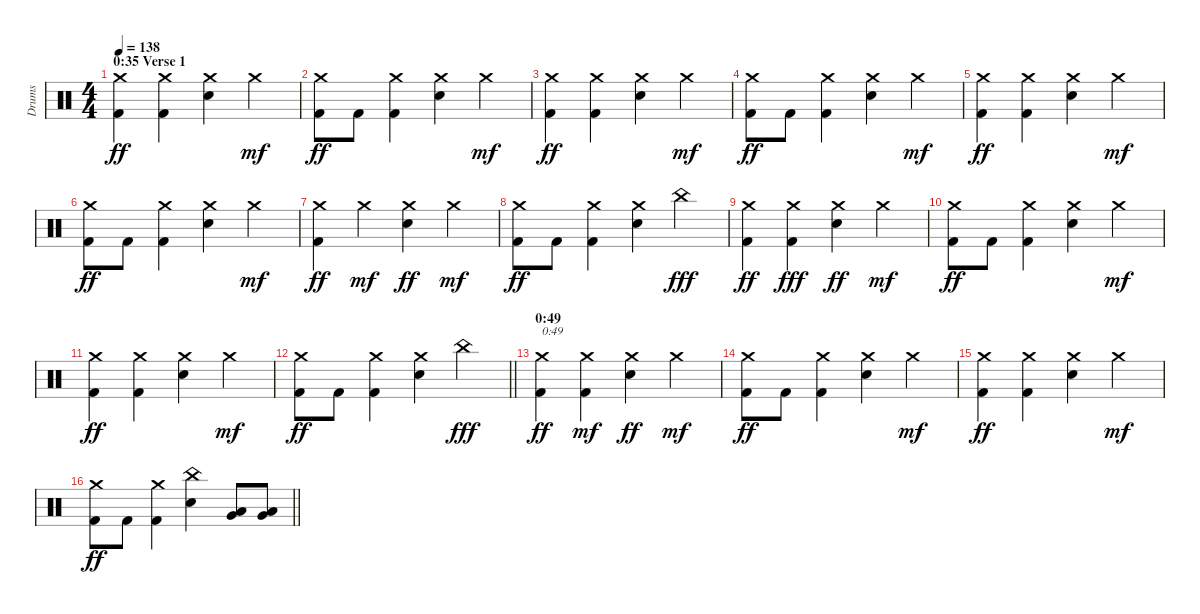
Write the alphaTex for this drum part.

\track ("Drums" "Drums") {instrument percussion}
\staff {score}
\articulation defaults
\ts (4 4)
\section ("" "0:35 Verse 1")
\tempo 138
\clef neutral
\ks c
("Crash medium (hit)" "Kick (hit) 2").4{dy ff} ("Crash medium (hit)" "Kick (hit) 2").4 ("Crash medium (hit)" "Electric Snare (hit)").4 "Crash medium (hit)".4{dy mf} |
("Crash medium (hit)" "Kick (hit) 2").8{dy ff} "Kick (hit) 2".8 ("Crash medium (hit)" "Kick (hit) 2").4 ("Crash medium (hit)" "Electric Snare (hit)").4 "Crash medium (hit)".4{dy mf} |
("Crash medium (hit)" "Kick (hit) 2").4{dy ff} ("Crash medium (hit)" "Kick (hit) 2").4 ("Crash medium (hit)" "Electric Snare (hit)").4 "Crash medium (hit)".4{dy mf} |
("Crash medium (hit)" "Kick (hit) 2").8{dy ff} "Kick (hit) 2".8 ("Crash medium (hit)" "Kick (hit) 2").4 ("Crash medium (hit)" "Electric Snare (hit)").4 "Crash medium (hit)".4{dy mf} |
("Crash medium (hit)" "Kick (hit) 2").4{dy ff} ("Crash medium (hit)" "Kick (hit) 2").4 ("Crash medium (hit)" "Electric Snare (hit)").4 "Crash medium (hit)".4{dy mf} |
("Crash medium (hit)" "Kick (hit) 2").8{dy ff} "Kick (hit) 2".8 ("Crash medium (hit)" "Kick (hit) 2").4 ("Crash medium (hit)" "Electric Snare (hit)").4 "Crash medium (hit)".4{dy mf} |
("Crash medium (hit)" "Kick (hit) 2").4{dy ff} "Crash medium (hit)".4{dy mf} ("Crash medium (hit)" "Electric Snare (hit)").4{dy ff} "Crash medium (hit)".4{dy mf} |
("Crash medium (hit)" "Kick (hit) 2").8{dy ff} "Kick (hit) 2".8 ("Crash medium (hit)" "Kick (hit) 2").4 ("Crash medium (hit)" "Electric Snare (hit)").4 "China (hit)".4{dy fff} |
("Crash medium (hit)" "Kick (hit) 2").4{dy ff} ("Crash medium (hit)" "Kick (hit) 2").4{dy fff} ("Crash medium (hit)" "Electric Snare (hit)").4{dy ff} "Crash medium (hit)".4{dy mf} |
("Crash medium (hit)" "Kick (hit) 2").8{dy ff} "Kick (hit) 2".8 ("Crash medium (hit)" "Kick (hit) 2").4 ("Crash medium (hit)" "Electric Snare (hit)").4 "Crash medium (hit)".4{dy mf} |
("Crash medium (hit)" "Kick (hit) 2").4{dy ff} ("Crash medium (hit)" "Kick (hit) 2").4 ("Crash medium (hit)" "Electric Snare (hit)").4 "Crash medium (hit)".4{dy mf} |
\barLineRight lightlight
("Crash medium (hit)" "Kick (hit) 2").8{dy ff} "Kick (hit) 2".8 ("Crash medium (hit)" "Kick (hit) 2").4 ("Crash medium (hit)" "Electric Snare (hit)").4 "China (hit)".4{dy fff} |
\section ("" "0:49")
("Crash medium (hit)" "Kick (hit) 2").4{txt "0:49" dy ff} ("Crash medium (hit)" "Kick (hit) 2").4{dy mf} ("Crash medium (hit)" "Electric Snare (hit)").4{dy ff} "Crash medium (hit)".4{dy mf} |
("Crash medium (hit)" "Kick (hit) 2").8{dy ff} "Kick (hit) 2".8 ("Crash medium (hit)" "Kick (hit) 2").4 ("Crash medium (hit)" "Electric Snare (hit)").4 "Crash medium (hit)".4{dy mf} |
("Crash medium (hit)" "Kick (hit) 2").4{dy ff} ("Crash medium (hit)" "Kick (hit) 2").4 ("Crash medium (hit)" "Electric Snare (hit)").4 "Crash medium (hit)".4{dy mf} |
\barLineRight lightlight
("Crash medium (hit)" "Kick (hit) 2").8{dy ff} "Kick (hit) 2".8 ("Crash medium (hit)" "Kick (hit) 2").4 ("China (hit)" "Electric Snare (hit)").4 ("Very Low Tom (hit)" "Low Floor Tom (hit)").8 ("Very Low Tom (hit)" "Low Floor Tom (hit)").8
